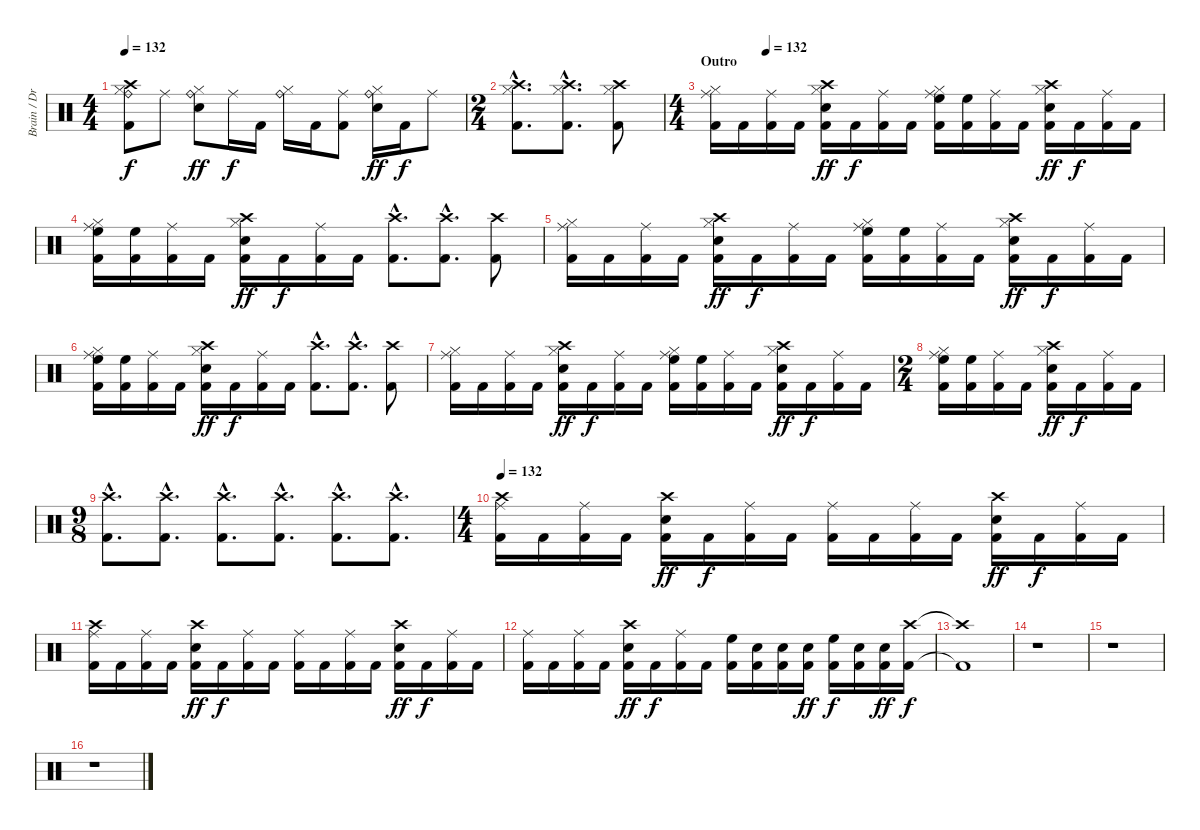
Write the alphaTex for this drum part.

\track ("Brain / Drums" "Brain / Dr") {instrument percussion}
\staff {score}
\articulation defaults
\ts (4 4)
\tempo 132
\clef neutral
\ks c
("Crash high (hit)" "Hi-Hat (closed)" "Ride (bell)" "Kick (hit) 2").8{dy f} "Ride (middle)".8 ("Hi-Hat (closed)" "Ride (bell)" "Electric Snare (hit)").8{dy ff} "Ride (middle)".16{dy f} "Kick (hit) 2".16 ("Hi-Hat (closed)" "Ride (bell)").16 "Kick (hit) 2".16 ("Ride (middle)" "Kick (hit) 2").8 ("Hi-Hat (closed)" "Ride (bell)" "Electric Snare (hit)").16{dy ff} "Kick (hit) 2".16{dy f} "Ride (middle)".8 |
\ts (2 4)
("Crash high (hit)"{hac} "Hi-Hat (closed)"{hac} "Kick (hit) 2"{hac}).8{d} ("Crash high (hit)"{hac} "Hi-Hat (closed)"{hac} "Kick (hit) 2"{hac}).8{d} ("Crash high (hit)" "Hi-Hat (closed)" "Kick (hit) 2").8 |
\ts (4 4)
\section ("" "Outro")
\tempo (132 0.125)
("Ride (middle)" "Hi-Hat (closed)" "Kick (hit) 2").16 "Kick (hit) 2".16 ("Ride (middle)" "Kick (hit) 2").16 "Kick (hit) 2".16 ("Crash high (hit)" "Hi-Hat (closed)" "Electric Snare (hit)" "Kick (hit) 2").16{dy ff} "Kick (hit) 2".16{dy f} ("Ride (middle)" "Kick (hit) 2").16 "Kick (hit) 2".16 ("Ride (middle)" "Hi-Hat (closed)" "High Floor Tom (hit)" "Kick (hit) 2").16 ("High Floor Tom (hit)" "Kick (hit) 2").16 ("Ride (middle)" "Kick (hit) 2").16 "Kick (hit) 2".16 ("Crash high (hit)" "Hi-Hat (closed)" "Electric Snare (hit)" "Kick (hit) 2").16{dy ff} "Kick (hit) 2".16{dy f} ("Ride (middle)" "Kick (hit) 2").16 "Kick (hit) 2".16 |
("Ride (middle)" "Hi-Hat (closed)" "High Floor Tom (hit)" "Kick (hit) 2").16 ("High Floor Tom (hit)" "Kick (hit) 2").16 ("Ride (middle)" "Kick (hit) 2").16 "Kick (hit) 2".16 ("Crash high (hit)" "Hi-Hat (closed)" "Electric Snare (hit)" "Kick (hit) 2").16{dy ff} "Kick (hit) 2".16{dy f} ("Ride (middle)" "Kick (hit) 2").16 "Kick (hit) 2".16 ("Crash high (hit)"{hac} "Kick (hit) 2"{hac}).8{d} ("Crash high (hit)"{hac} "Kick (hit) 2"{hac}).8{d} ("Crash high (hit)" "Kick (hit) 2").8 |
("Ride (middle)" "Hi-Hat (closed)" "Kick (hit) 2").16 "Kick (hit) 2".16 ("Ride (middle)" "Kick (hit) 2").16 "Kick (hit) 2".16 ("Crash high (hit)" "Hi-Hat (closed)" "Electric Snare (hit)" "Kick (hit) 2").16{dy ff} "Kick (hit) 2".16{dy f} ("Ride (middle)" "Kick (hit) 2").16 "Kick (hit) 2".16 ("Ride (middle)" "Hi-Hat (closed)" "High Floor Tom (hit)" "Kick (hit) 2").16 ("High Floor Tom (hit)" "Kick (hit) 2").16 ("Ride (middle)" "Kick (hit) 2").16 "Kick (hit) 2".16 ("Crash high (hit)" "Hi-Hat (closed)" "Electric Snare (hit)" "Kick (hit) 2").16{dy ff} "Kick (hit) 2".16{dy f} ("Ride (middle)" "Kick (hit) 2").16 "Kick (hit) 2".16 |
("Ride (middle)" "Hi-Hat (closed)" "High Floor Tom (hit)" "Kick (hit) 2").16 ("High Floor Tom (hit)" "Kick (hit) 2").16 ("Ride (middle)" "Kick (hit) 2").16 "Kick (hit) 2".16 ("Crash high (hit)" "Hi-Hat (closed)" "Electric Snare (hit)" "Kick (hit) 2").16{dy ff} "Kick (hit) 2".16{dy f} ("Ride (middle)" "Kick (hit) 2").16 "Kick (hit) 2".16 ("Crash high (hit)"{hac} "Kick (hit) 2"{hac}).8{d} ("Crash high (hit)"{hac} "Kick (hit) 2"{hac}).8{d} ("Crash high (hit)" "Kick (hit) 2").8 |
("Ride (middle)" "Hi-Hat (closed)" "Kick (hit) 2").16 "Kick (hit) 2".16 ("Ride (middle)" "Kick (hit) 2").16 "Kick (hit) 2".16 ("Crash high (hit)" "Hi-Hat (closed)" "Electric Snare (hit)" "Kick (hit) 2").16{dy ff} "Kick (hit) 2".16{dy f} ("Ride (middle)" "Kick (hit) 2").16 "Kick (hit) 2".16 ("Ride (middle)" "Hi-Hat (closed)" "High Floor Tom (hit)" "Kick (hit) 2").16 ("High Floor Tom (hit)" "Kick (hit) 2").16 ("Ride (middle)" "Kick (hit) 2").16 "Kick (hit) 2".16 ("Crash high (hit)" "Hi-Hat (closed)" "Electric Snare (hit)" "Kick (hit) 2").16{dy ff} "Kick (hit) 2".16{dy f} ("Ride (middle)" "Kick (hit) 2").16 "Kick (hit) 2".16 |
\ts (2 4)
("Ride (middle)" "Hi-Hat (closed)" "High Floor Tom (hit)" "Kick (hit) 2").16 ("High Floor Tom (hit)" "Kick (hit) 2").16 ("Ride (middle)" "Kick (hit) 2").16 "Kick (hit) 2".16 ("Crash high (hit)" "Hi-Hat (closed)" "Electric Snare (hit)" "Kick (hit) 2").16{dy ff} "Kick (hit) 2".16{dy f} ("Ride (middle)" "Kick (hit) 2").16 "Kick (hit) 2".16 |
\ts (9 8)
("Crash high (hit)"{hac} "Kick (hit) 2"{hac}).8{d} ("Crash high (hit)"{hac} "Kick (hit) 2"{hac}).8{d} ("Crash high (hit)"{hac} "Kick (hit) 2"{hac}).8{d} ("Crash high (hit)"{hac} "Kick (hit) 2"{hac}).8{d} ("Crash high (hit)"{hac} "Kick (hit) 2"{hac}).8{d} ("Crash high (hit)"{hac} "Kick (hit) 2"{hac}).8{d} |
\ts (4 4)
\tempo 132
("Crash high (hit)" "Ride (middle)" "Kick (hit) 2").16 "Kick (hit) 2".16 ("Ride (middle)" "Kick (hit) 2").16 "Kick (hit) 2".16 ("Crash high (hit)" "Electric Snare (hit)" "Kick (hit) 2").16{dy ff} "Kick (hit) 2".16{dy f} ("Ride (middle)" "Kick (hit) 2").16 "Kick (hit) 2".16 ("Ride (middle)" "Kick (hit) 2").16 "Kick (hit) 2".16 ("Ride (middle)" "Kick (hit) 2").16 "Kick (hit) 2".16 ("Crash high (hit)" "Electric Snare (hit)" "Kick (hit) 2").16{dy ff} "Kick (hit) 2".16{dy f} ("Ride (middle)" "Kick (hit) 2").16 "Kick (hit) 2".16 |
("Crash high (hit)" "Ride (middle)" "Kick (hit) 2").16 "Kick (hit) 2".16 ("Ride (middle)" "Kick (hit) 2").16 "Kick (hit) 2".16 ("Crash high (hit)" "Electric Snare (hit)" "Kick (hit) 2").16{dy ff} "Kick (hit) 2".16{dy f} ("Ride (middle)" "Kick (hit) 2").16 "Kick (hit) 2".16 ("Ride (middle)" "Kick (hit) 2").16 "Kick (hit) 2".16 ("Ride (middle)" "Kick (hit) 2").16 "Kick (hit) 2".16 ("Crash high (hit)" "Electric Snare (hit)" "Kick (hit) 2").16{dy ff} "Kick (hit) 2".16{dy f} ("Ride (middle)" "Kick (hit) 2").16 "Kick (hit) 2".16 |
("Ride (middle)" "Kick (hit) 2").16 "Kick (hit) 2".16 ("Ride (middle)" "Kick (hit) 2").16 "Kick (hit) 2".16 ("Crash high (hit)" "Electric Snare (hit)" "Kick (hit) 2").16{dy ff} "Kick (hit) 2".16{dy f} ("Ride (middle)" "Kick (hit) 2").16 "Kick (hit) 2".16 ("High Floor Tom (hit)" "Kick (hit) 2").16 ("Electric Snare (hit)" "Kick (hit) 2").16 ("Electric Snare (hit)" "Kick (hit) 2").16 ("Electric Snare (hit)" "Kick (hit) 2").16{dy ff} ("High Floor Tom (hit)" "Kick (hit) 2").16{dy f} ("Electric Snare (hit)" "Kick (hit) 2").16 ("Electric Snare (hit)" "Kick (hit) 2").16{dy ff} ("Crash high (hit)" "Kick (hit) 2").16{dy f} |
("Crash high (hit)"{t} "Kick (hit) 2"{t}).1 |
r.1 |
r.1 |
r.1
